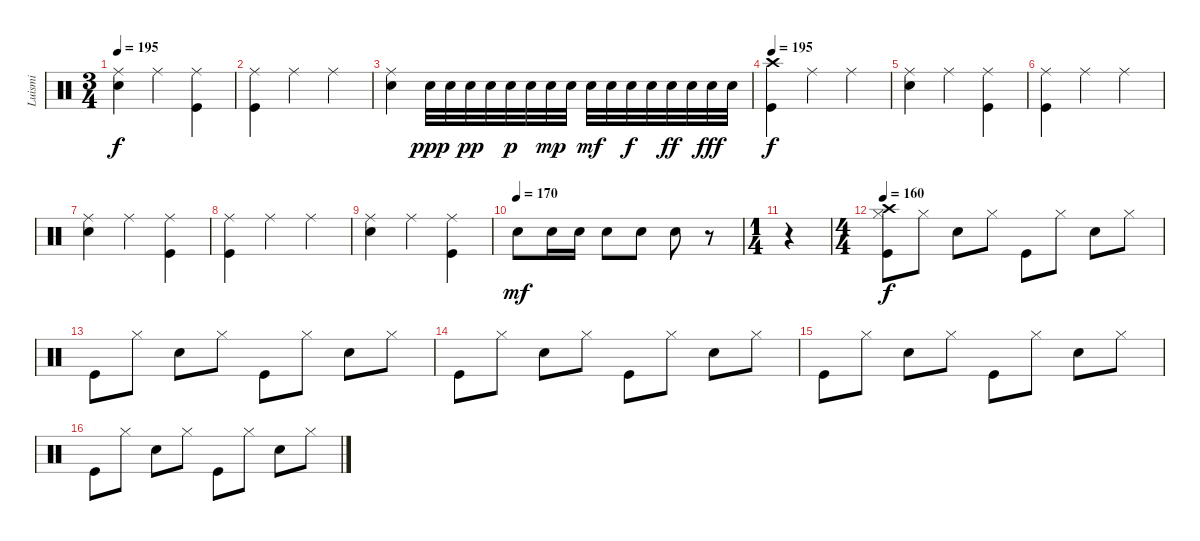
\track ("Luismi" "Luismi") {instrument percussion}
\staff {score}
\articulation defaults
\ts (3 4)
\tempo 195
\clef neutral
\ks c
("Ride (middle)" "Snare (hit) 2").4{dy f} "Ride (middle)".4 ("Ride (middle)" "Kick (hit)").4 |
("Ride (middle)" "Kick (hit)").4 "Ride (middle)".4 "Ride (middle)".4 |
("Ride (middle)" "Snare (hit) 2").4 "Snare (hit) 2".32{dy ppp} "Snare (hit) 2".32 "Snare (hit) 2".32{dy pp} "Snare (hit) 2".32 "Snare (hit) 2".32{dy p} "Snare (hit) 2".32 "Snare (hit) 2".32{dy mp} "Snare (hit) 2".32 "Snare (hit) 2".32{dy mf} "Snare (hit) 2".32 "Snare (hit) 2".32{dy f} "Snare (hit) 2".32 "Snare (hit) 2".32{dy ff} "Snare (hit) 2".32 "Snare (hit) 2".32{dy fff} "Snare (hit) 2".32 |
\tempo 195
("Kick (hit)" "Crash high (hit)").4{dy f} "Ride (middle)".4 "Ride (middle)".4 |
("Ride (middle)" "Snare (hit) 2").4 "Ride (middle)".4 ("Ride (middle)" "Kick (hit)").4 |
("Ride (middle)" "Kick (hit)").4 "Ride (middle)".4 "Ride (middle)".4 |
("Ride (middle)" "Snare (hit) 2").4 "Ride (middle)".4 ("Ride (middle)" "Kick (hit)").4 |
("Kick (hit)" "Ride (middle)").4 "Ride (middle)".4 "Ride (middle)".4 |
("Ride (middle)" "Snare (hit) 2").4 "Ride (middle)".4 ("Ride (middle)" "Kick (hit)").4 |
\tempo (170)
"Snare (hit) 2".8{dy mf} "Snare (hit) 2".16 "Snare (hit) 2".16 "Snare (hit) 2".8 "Snare (hit) 2".8 "Snare (hit) 2".8 r.8 |
\ts (1 4)
r.4 |
\ts (4 4)
\tempo 138
\tempo 160
("Kick (hit)" "Crash high (hit)" "Hi-Hat (closed)").8{dy f} "Hi-Hat (closed)".8 "Snare (hit) 2".8 "Hi-Hat (closed)".8 "Kick (hit)".8 "Hi-Hat (closed)".8 "Snare (hit) 2".8 "Hi-Hat (closed)".8 |
"Kick (hit)".8 "Hi-Hat (closed)".8 "Snare (hit) 2".8 "Hi-Hat (closed)".8 "Kick (hit)".8 "Hi-Hat (closed)".8 "Snare (hit) 2".8 "Hi-Hat (closed)".8 |
"Kick (hit)".8 "Hi-Hat (closed)".8 "Snare (hit) 2".8 "Hi-Hat (closed)".8 "Kick (hit)".8 "Hi-Hat (closed)".8 "Snare (hit) 2".8 "Hi-Hat (closed)".8 |
"Kick (hit)".8 "Hi-Hat (closed)".8 "Snare (hit) 2".8 "Hi-Hat (closed)".8 "Kick (hit)".8 "Hi-Hat (closed)".8 "Snare (hit) 2".8 "Hi-Hat (closed)".8 |
"Kick (hit)".8 "Hi-Hat (closed)".8 "Snare (hit) 2".8 "Hi-Hat (closed)".8 "Kick (hit)".8 "Hi-Hat (closed)".8 "Snare (hit) 2".8 "Hi-Hat (closed)".8
